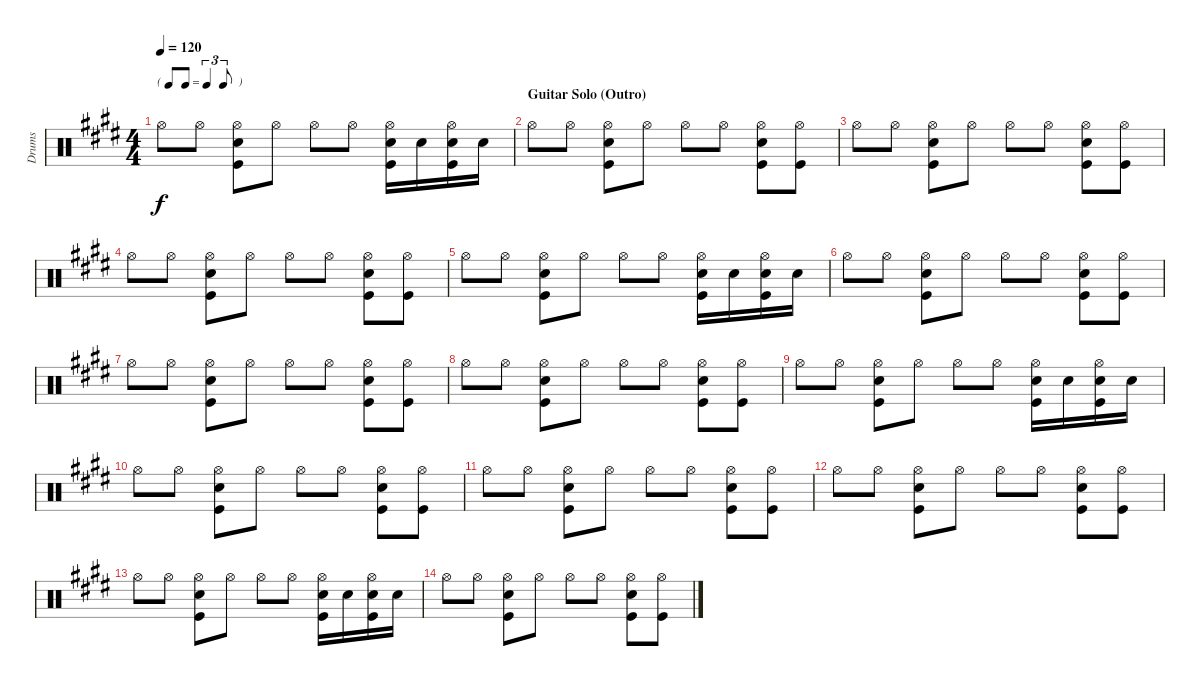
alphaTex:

\track ("Drums" "Drums") {instrument percussion}
\staff {score}
\articulation defaults
\ts (4 4)
\tf triplet8th
\tempo 120
\clef neutral
\ks e "Hi-Hat (open)".8{dy f} "Hi-Hat (open)".8
("Kick (hit)" "Electric Snare (hit)" "Hi-Hat (open)").8 "Hi-Hat (open)".8 "Hi-Hat (open)".8 "Hi-Hat (open)".8 ("Kick (hit)" "Electric Snare (hit)" "Hi-Hat (open)").16 "Electric Snare (hit)".16 ("Electric Snare (hit)" "Kick (hit)" "Hi-Hat (open)").16 "Electric Snare (hit)".16 |
\section ("" "Guitar Solo (Outro)")
"Hi-Hat (open)".8 "Hi-Hat (open)".8 ("Kick (hit)" "Electric Snare (hit)" "Hi-Hat (open)").8 "Hi-Hat (open)".8 "Hi-Hat (open)".8 "Hi-Hat (open)".8 ("Kick (hit)" "Electric Snare (hit)" "Hi-Hat (open)").8 ("Kick (hit)" "Hi-Hat (open)").8 |
"Hi-Hat (open)".8 "Hi-Hat (open)".8 ("Kick (hit)" "Electric Snare (hit)" "Hi-Hat (open)").8 "Hi-Hat (open)".8 "Hi-Hat (open)".8 "Hi-Hat (open)".8 ("Kick (hit)" "Electric Snare (hit)" "Hi-Hat (open)").8 ("Kick (hit)" "Hi-Hat (open)").8 |
"Hi-Hat (open)".8 "Hi-Hat (open)".8 ("Kick (hit)" "Electric Snare (hit)" "Hi-Hat (open)").8 "Hi-Hat (open)".8 "Hi-Hat (open)".8 "Hi-Hat (open)".8 ("Kick (hit)" "Electric Snare (hit)" "Hi-Hat (open)").8 ("Kick (hit)" "Hi-Hat (open)").8 |
"Hi-Hat (open)".8 "Hi-Hat (open)".8 ("Kick (hit)" "Electric Snare (hit)" "Hi-Hat (open)").8 "Hi-Hat (open)".8 "Hi-Hat (open)".8 "Hi-Hat (open)".8 ("Kick (hit)" "Electric Snare (hit)" "Hi-Hat (open)").16 "Electric Snare (hit)".16 ("Electric Snare (hit)" "Kick (hit)" "Hi-Hat (open)").16 "Electric Snare (hit)".16 |
"Hi-Hat (open)".8 "Hi-Hat (open)".8 ("Kick (hit)" "Electric Snare (hit)" "Hi-Hat (open)").8 "Hi-Hat (open)".8 "Hi-Hat (open)".8 "Hi-Hat (open)".8 ("Kick (hit)" "Electric Snare (hit)" "Hi-Hat (open)").8 ("Kick (hit)" "Hi-Hat (open)").8 |
"Hi-Hat (open)".8 "Hi-Hat (open)".8 ("Kick (hit)" "Electric Snare (hit)" "Hi-Hat (open)").8 "Hi-Hat (open)".8 "Hi-Hat (open)".8 "Hi-Hat (open)".8 ("Kick (hit)" "Electric Snare (hit)" "Hi-Hat (open)").8 ("Kick (hit)" "Hi-Hat (open)").8 |
"Hi-Hat (open)".8 "Hi-Hat (open)".8 ("Kick (hit)" "Electric Snare (hit)" "Hi-Hat (open)").8 "Hi-Hat (open)".8 "Hi-Hat (open)".8 "Hi-Hat (open)".8 ("Kick (hit)" "Electric Snare (hit)" "Hi-Hat (open)").8 ("Kick (hit)" "Hi-Hat (open)").8 |
"Hi-Hat (open)".8 "Hi-Hat (open)".8 ("Kick (hit)" "Electric Snare (hit)" "Hi-Hat (open)").8 "Hi-Hat (open)".8 "Hi-Hat (open)".8 "Hi-Hat (open)".8 ("Kick (hit)" "Electric Snare (hit)" "Hi-Hat (open)").16 "Electric Snare (hit)".16 ("Electric Snare (hit)" "Kick (hit)" "Hi-Hat (open)").16 "Electric Snare (hit)".16 |
"Hi-Hat (open)".8 "Hi-Hat (open)".8 ("Kick (hit)" "Electric Snare (hit)" "Hi-Hat (open)").8 "Hi-Hat (open)".8 "Hi-Hat (open)".8 "Hi-Hat (open)".8 ("Kick (hit)" "Electric Snare (hit)" "Hi-Hat (open)").8 ("Kick (hit)" "Hi-Hat (open)").8 |
"Hi-Hat (open)".8 "Hi-Hat (open)".8 ("Kick (hit)" "Electric Snare (hit)" "Hi-Hat (open)").8 "Hi-Hat (open)".8 "Hi-Hat (open)".8 "Hi-Hat (open)".8 ("Kick (hit)" "Electric Snare (hit)" "Hi-Hat (open)").8 ("Kick (hit)" "Hi-Hat (open)").8 |
"Hi-Hat (open)".8 "Hi-Hat (open)".8 ("Kick (hit)" "Electric Snare (hit)" "Hi-Hat (open)").8 "Hi-Hat (open)".8 "Hi-Hat (open)".8 "Hi-Hat (open)".8 ("Kick (hit)" "Electric Snare (hit)" "Hi-Hat (open)").8 ("Kick (hit)" "Hi-Hat (open)").8 |
"Hi-Hat (open)".8 "Hi-Hat (open)".8 ("Kick (hit)" "Electric Snare (hit)" "Hi-Hat (open)").8 "Hi-Hat (open)".8 "Hi-Hat (open)".8 "Hi-Hat (open)".8 ("Kick (hit)" "Electric Snare (hit)" "Hi-Hat (open)").16 "Electric Snare (hit)".16 ("Electric Snare (hit)" "Kick (hit)" "Hi-Hat (open)").16 "Electric Snare (hit)".16 |
"Hi-Hat (open)".8 "Hi-Hat (open)".8 ("Kick (hit)" "Electric Snare (hit)" "Hi-Hat (open)").8 "Hi-Hat (open)".8 "Hi-Hat (open)".8 "Hi-Hat (open)".8 ("Kick (hit)" "Electric Snare (hit)" "Hi-Hat (open)").8 ("Kick (hit)" "Hi-Hat (open)").8
